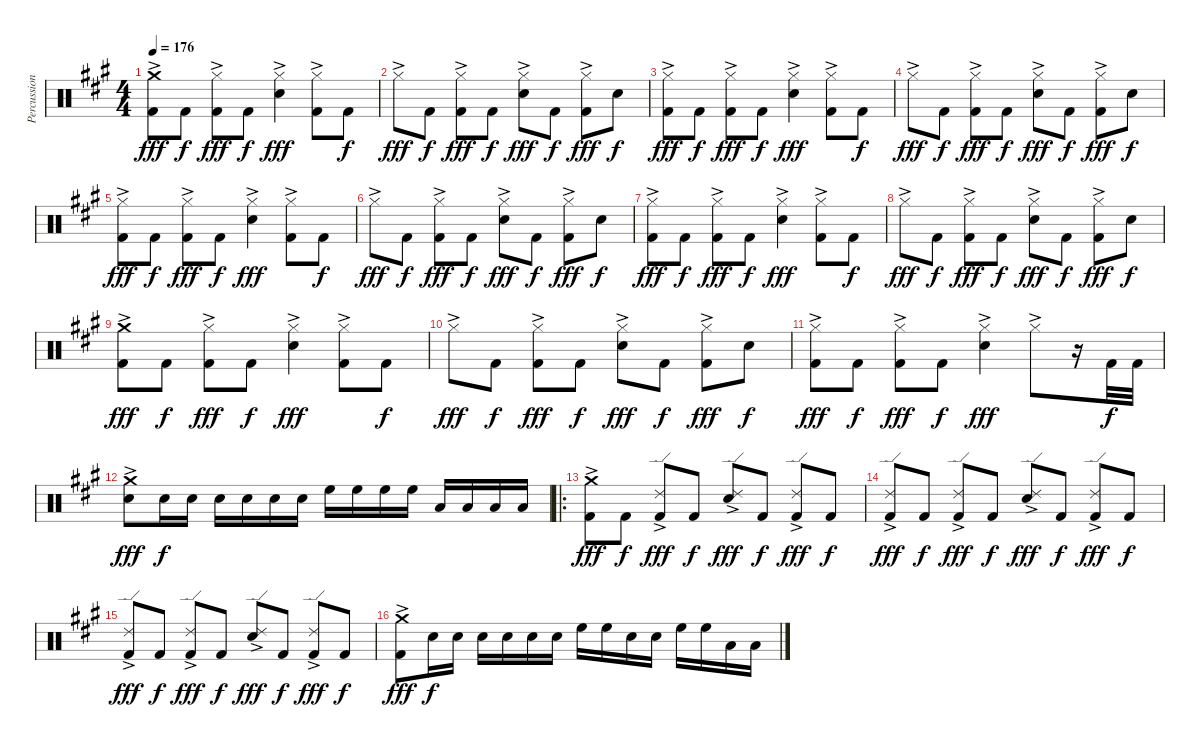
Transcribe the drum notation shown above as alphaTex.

\track ("Percussion" "Percussion") {instrument percussion}
\staff {score}
\articulation defaults
\ts (4 4)
\tempo 176
\clef neutral
\ks a
("Crash medium (hit)"{ac} "Kick (hit) 2").8{dy fff} "Kick (hit) 2".8{dy f} ("Hi-Hat (closed)"{ac} "Kick (hit) 2").8{dy fff} "Kick (hit) 2".8{dy f} ("Hi-Hat (closed)"{ac} "Snare (hit) 2").4{dy fff} ("Hi-Hat (closed)"{ac} "Kick (hit) 2").8 "Kick (hit) 2".8{dy f} |
"Hi-Hat (closed)"{ac}.8{dy fff} "Kick (hit) 2".8{dy f} ("Hi-Hat (closed)"{ac} "Kick (hit) 2").8{dy fff} "Kick (hit) 2".8{dy f} ("Hi-Hat (closed)"{ac} "Snare (hit) 2").8{dy fff} "Kick (hit) 2".8{dy f} ("Hi-Hat (closed)"{ac} "Kick (hit) 2").8{dy fff} "Snare (hit) 2".8{dy f} |
("Hi-Hat (closed)"{ac} "Kick (hit) 2").8{dy fff} "Kick (hit) 2".8{dy f} ("Hi-Hat (closed)"{ac} "Kick (hit) 2").8{dy fff} "Kick (hit) 2".8{dy f} ("Hi-Hat (closed)"{ac} "Snare (hit) 2").4{dy fff} ("Hi-Hat (closed)"{ac} "Kick (hit) 2").8 "Kick (hit) 2".8{dy f} |
"Hi-Hat (closed)"{ac}.8{dy fff} "Kick (hit) 2".8{dy f} ("Hi-Hat (closed)"{ac} "Kick (hit) 2").8{dy fff} "Kick (hit) 2".8{dy f} ("Hi-Hat (closed)"{ac} "Snare (hit) 2").8{dy fff} "Kick (hit) 2".8{dy f} ("Hi-Hat (closed)"{ac} "Kick (hit) 2").8{dy fff} "Snare (hit) 2".8{dy f} |
("Hi-Hat (closed)"{ac} "Kick (hit) 2").8{dy fff} "Kick (hit) 2".8{dy f} ("Hi-Hat (closed)"{ac} "Kick (hit) 2").8{dy fff} "Kick (hit) 2".8{dy f} ("Hi-Hat (closed)"{ac} "Snare (hit) 2").4{dy fff} ("Hi-Hat (closed)"{ac} "Kick (hit) 2").8 "Kick (hit) 2".8{dy f} |
"Hi-Hat (closed)"{ac}.8{dy fff} "Kick (hit) 2".8{dy f} ("Hi-Hat (closed)"{ac} "Kick (hit) 2").8{dy fff} "Kick (hit) 2".8{dy f} ("Hi-Hat (closed)"{ac} "Snare (hit) 2").8{dy fff} "Kick (hit) 2".8{dy f} ("Hi-Hat (closed)"{ac} "Kick (hit) 2").8{dy fff} "Snare (hit) 2".8{dy f} |
("Hi-Hat (closed)"{ac} "Kick (hit) 2").8{dy fff} "Kick (hit) 2".8{dy f} ("Hi-Hat (closed)"{ac} "Kick (hit) 2").8{dy fff} "Kick (hit) 2".8{dy f} ("Hi-Hat (closed)"{ac} "Snare (hit) 2").4{dy fff} ("Hi-Hat (closed)"{ac} "Kick (hit) 2").8 "Kick (hit) 2".8{dy f} |
"Hi-Hat (closed)"{ac}.8{dy fff} "Kick (hit) 2".8{dy f} ("Hi-Hat (closed)"{ac} "Kick (hit) 2").8{dy fff} "Kick (hit) 2".8{dy f} ("Hi-Hat (closed)"{ac} "Snare (hit) 2").8{dy fff} "Kick (hit) 2".8{dy f} ("Hi-Hat (closed)"{ac} "Kick (hit) 2").8{dy fff} "Snare (hit) 2".8{dy f} |
("Crash medium (hit)"{ac} "Kick (hit) 2").8{dy fff} "Kick (hit) 2".8{dy f} ("Hi-Hat (closed)"{ac} "Kick (hit) 2").8{dy fff} "Kick (hit) 2".8{dy f} ("Hi-Hat (closed)"{ac} "Snare (hit) 2").4{dy fff} ("Hi-Hat (closed)"{ac} "Kick (hit) 2").8 "Kick (hit) 2".8{dy f} |
"Hi-Hat (closed)"{ac}.8{dy fff} "Kick (hit) 2".8{dy f} ("Hi-Hat (closed)"{ac} "Kick (hit) 2").8{dy fff} "Kick (hit) 2".8{dy f} ("Hi-Hat (closed)"{ac} "Snare (hit) 2").8{dy fff} "Kick (hit) 2".8{dy f} ("Hi-Hat (closed)"{ac} "Kick (hit) 2").8{dy fff} "Snare (hit) 2".8{dy f} |
("Hi-Hat (closed)"{ac} "Kick (hit) 2").8{dy fff} "Kick (hit) 2".8{dy f} ("Hi-Hat (closed)"{ac} "Kick (hit) 2").8{dy fff} "Kick (hit) 2".8{dy f} ("Hi-Hat (closed)"{ac} "Snare (hit) 2").4{dy fff} "Hi-Hat (closed)"{ac}.8 r.16 "Kick (hit) 2".32{dy f} "Kick (hit) 2".32 |
("Crash medium (hit)"{ac} "Snare (hit) 2"{ac}).8{dy fff} "Snare (hit) 2".16{dy f} "Snare (hit) 2".16 "Snare (hit) 2".16 "Snare (hit) 2".16 "Snare (hit) 2".16 "Snare (hit) 2".16 "High Floor Tom (hit)".16 "High Floor Tom (hit)".16 "High Floor Tom (hit)".16 "High Floor Tom (hit)".16 "Low Floor Tom (hit)".16 "Low Floor Tom (hit)".16 "Low Floor Tom (hit)".16 "Low Floor Tom (hit)".16 |
\ro
("Crash medium (hit)"{ac} "Kick (hit) 2").8{dy fff} "Kick (hit) 2".8{dy f} ("Ride (edge) 2"{ac} "Kick (hit) 2").8{dy fff} "Kick (hit) 2".8{dy f} ("Ride (edge) 2"{ac} "Snare (hit) 2").8{dy fff} "Kick (hit) 2".8{dy f} ("Ride (edge) 2"{ac} "Kick (hit) 2").8{dy fff} "Kick (hit) 2".8{dy f} |
("Ride (edge) 2"{ac} "Kick (hit) 2").8{dy fff} "Kick (hit) 2".8{dy f} ("Ride (edge) 2"{ac} "Kick (hit) 2").8{dy fff} "Kick (hit) 2".8{dy f} ("Ride (edge) 2"{ac} "Snare (hit) 2").8{dy fff} "Kick (hit) 2".8{dy f} ("Ride (edge) 2"{ac} "Kick (hit) 2").8{dy fff} "Kick (hit) 2".8{dy f} |
("Ride (edge) 2"{ac} "Kick (hit) 2").8{dy fff} "Kick (hit) 2".8{dy f} ("Ride (edge) 2"{ac} "Kick (hit) 2").8{dy fff} "Kick (hit) 2".8{dy f} ("Ride (edge) 2"{ac} "Snare (hit) 2").8{dy fff} "Kick (hit) 2".8{dy f} ("Ride (edge) 2"{ac} "Kick (hit) 2").8{dy fff} "Kick (hit) 2".8{dy f} |
("Crash medium (hit)"{ac} "Kick (hit) 2").8{dy fff} "Snare (hit) 2".16{dy f} "Snare (hit) 2".16 "Snare (hit) 2".16 "Snare (hit) 2".16 "Snare (hit) 2".16 "Snare (hit) 2".16 "High Floor Tom (hit)".16 "High Floor Tom (hit)".16 "Snare (hit) 2".16 "Snare (hit) 2".16 "High Floor Tom (hit)".16 "High Floor Tom (hit)".16 "Low Floor Tom (hit)".16 "Low Floor Tom (hit)".16
